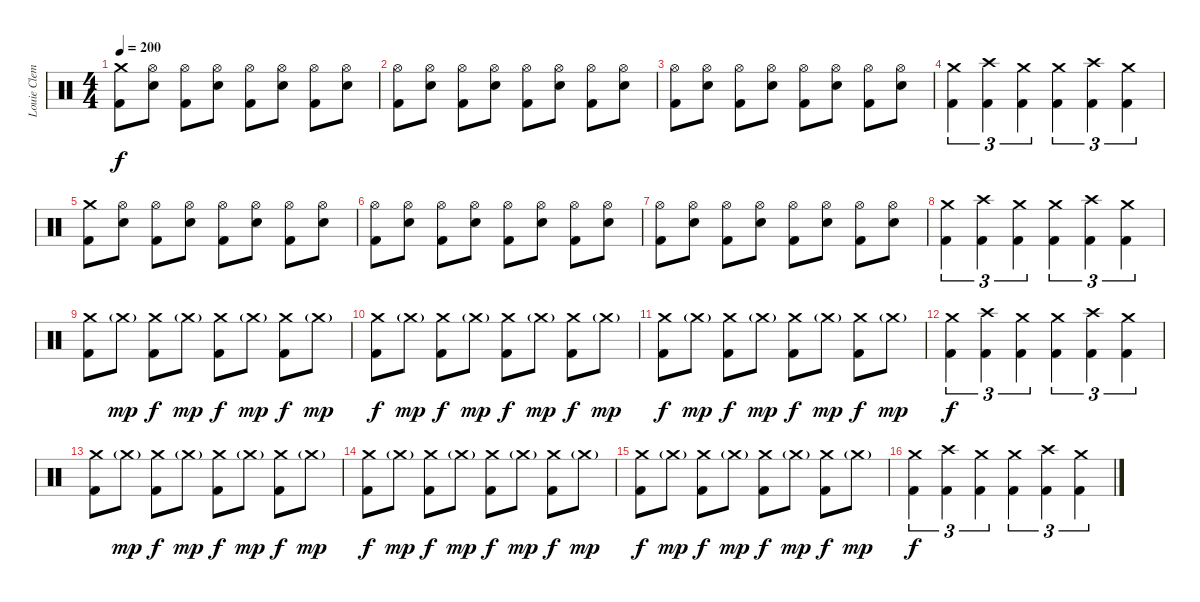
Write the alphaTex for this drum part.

\track ("Louie Clemente" "Louie Clem") {instrument percussion}
\staff {score}
\articulation defaults
\ts (4 4)
\tempo 200
\clef neutral
\ks c
("Crash medium (hit)" "Kick (hit) 2").8{dy f} ("Hi-Hat (open)" "Snare (hit) 2").8 ("Hi-Hat (open)" "Kick (hit) 2").8 ("Hi-Hat (open)" "Snare (hit) 2").8 ("Hi-Hat (open)" "Kick (hit) 2").8 ("Hi-Hat (open)" "Snare (hit) 2").8 ("Hi-Hat (open)" "Kick (hit) 2").8 ("Hi-Hat (open)" "Snare (hit) 2").8 |
("Hi-Hat (open)" "Kick (hit) 2").8 ("Hi-Hat (open)" "Snare (hit) 2").8 ("Hi-Hat (open)" "Kick (hit) 2").8 ("Hi-Hat (open)" "Snare (hit) 2").8 ("Hi-Hat (open)" "Kick (hit) 2").8 ("Hi-Hat (open)" "Snare (hit) 2").8 ("Hi-Hat (open)" "Kick (hit) 2").8 ("Hi-Hat (open)" "Snare (hit) 2").8 |
("Hi-Hat (open)" "Kick (hit) 2").8 ("Hi-Hat (open)" "Snare (hit) 2").8 ("Hi-Hat (open)" "Kick (hit) 2").8 ("Hi-Hat (open)" "Snare (hit) 2").8 ("Hi-Hat (open)" "Kick (hit) 2").8 ("Hi-Hat (open)" "Snare (hit) 2").8 ("Hi-Hat (open)" "Kick (hit) 2").8 ("Hi-Hat (open)" "Snare (hit) 2").8 |
("Crash medium (hit)" "Kick (hit) 2").4{tu (3 2)} ("Crash high (hit)" "Kick (hit) 2").4{tu (3 2)} ("Crash medium (hit)" "Kick (hit) 2").4{tu (3 2)} ("Crash medium (hit)" "Kick (hit) 2").4{tu (3 2)} ("Crash high (hit)" "Kick (hit) 2").4{tu (3 2)} ("Crash medium (hit)" "Kick (hit) 2").4{tu (3 2)} |
("Crash medium (hit)" "Kick (hit) 2").8 ("Hi-Hat (open)" "Snare (hit) 2").8 ("Hi-Hat (open)" "Kick (hit) 2").8 ("Hi-Hat (open)" "Snare (hit) 2").8 ("Hi-Hat (open)" "Kick (hit) 2").8 ("Hi-Hat (open)" "Snare (hit) 2").8 ("Hi-Hat (open)" "Kick (hit) 2").8 ("Hi-Hat (open)" "Snare (hit) 2").8 |
("Hi-Hat (open)" "Kick (hit) 2").8 ("Hi-Hat (open)" "Snare (hit) 2").8 ("Hi-Hat (open)" "Kick (hit) 2").8 ("Hi-Hat (open)" "Snare (hit) 2").8 ("Hi-Hat (open)" "Kick (hit) 2").8 ("Hi-Hat (open)" "Snare (hit) 2").8 ("Hi-Hat (open)" "Kick (hit) 2").8 ("Hi-Hat (open)" "Snare (hit) 2").8 |
("Hi-Hat (open)" "Kick (hit) 2").8 ("Hi-Hat (open)" "Snare (hit) 2").8 ("Hi-Hat (open)" "Kick (hit) 2").8 ("Hi-Hat (open)" "Snare (hit) 2").8 ("Hi-Hat (open)" "Kick (hit) 2").8 ("Hi-Hat (open)" "Snare (hit) 2").8 ("Hi-Hat (open)" "Kick (hit) 2").8 ("Hi-Hat (open)" "Snare (hit) 2").8 |
("Crash medium (hit)" "Kick (hit) 2").4{tu (3 2)} ("Crash high (hit)" "Kick (hit) 2").4{tu (3 2)} ("Crash medium (hit)" "Kick (hit) 2").4{tu (3 2)} ("Crash medium (hit)" "Kick (hit) 2").4{tu (3 2)} ("Crash high (hit)" "Kick (hit) 2").4{tu (3 2)} ("Crash medium (hit)" "Kick (hit) 2").4{tu (3 2)} |
("Crash medium (hit)" "Kick (hit) 2").8 "Crash medium (hit)"{g}.8{dy mp} ("Crash medium (hit)" "Kick (hit) 2").8{dy f} "Crash medium (hit)"{g}.8{dy mp} ("Crash medium (hit)" "Kick (hit) 2").8{dy f} "Crash medium (hit)"{g}.8{dy mp} ("Crash medium (hit)" "Kick (hit) 2").8{dy f} "Crash medium (hit)"{g}.8{dy mp} |
("Crash medium (hit)" "Kick (hit) 2").8{dy f} "Crash medium (hit)"{g}.8{dy mp} ("Crash medium (hit)" "Kick (hit) 2").8{dy f} "Crash medium (hit)"{g}.8{dy mp} ("Crash medium (hit)" "Kick (hit) 2").8{dy f} "Crash medium (hit)"{g}.8{dy mp} ("Crash medium (hit)" "Kick (hit) 2").8{dy f} "Crash medium (hit)"{g}.8{dy mp} |
("Crash medium (hit)" "Kick (hit) 2").8{dy f} "Crash medium (hit)"{g}.8{dy mp} ("Crash medium (hit)" "Kick (hit) 2").8{dy f} "Crash medium (hit)"{g}.8{dy mp} ("Crash medium (hit)" "Kick (hit) 2").8{dy f} "Crash medium (hit)"{g}.8{dy mp} ("Crash medium (hit)" "Kick (hit) 2").8{dy f} "Crash medium (hit)"{g}.8{dy mp} |
("Crash medium (hit)" "Kick (hit) 2").4{tu (3 2) dy f} ("Crash high (hit)" "Kick (hit) 2").4{tu (3 2)} ("Crash medium (hit)" "Kick (hit) 2").4{tu (3 2)} ("Crash medium (hit)" "Kick (hit) 2").4{tu (3 2)} ("Crash high (hit)" "Kick (hit) 2").4{tu (3 2)} ("Crash medium (hit)" "Kick (hit) 2").4{tu (3 2)} |
("Crash medium (hit)" "Kick (hit) 2").8 "Crash medium (hit)"{g}.8{dy mp} ("Crash medium (hit)" "Kick (hit) 2").8{dy f} "Crash medium (hit)"{g}.8{dy mp} ("Crash medium (hit)" "Kick (hit) 2").8{dy f} "Crash medium (hit)"{g}.8{dy mp} ("Crash medium (hit)" "Kick (hit) 2").8{dy f} "Crash medium (hit)"{g}.8{dy mp} |
("Crash medium (hit)" "Kick (hit) 2").8{dy f} "Crash medium (hit)"{g}.8{dy mp} ("Crash medium (hit)" "Kick (hit) 2").8{dy f} "Crash medium (hit)"{g}.8{dy mp} ("Crash medium (hit)" "Kick (hit) 2").8{dy f} "Crash medium (hit)"{g}.8{dy mp} ("Crash medium (hit)" "Kick (hit) 2").8{dy f} "Crash medium (hit)"{g}.8{dy mp} |
("Crash medium (hit)" "Kick (hit) 2").8{dy f} "Crash medium (hit)"{g}.8{dy mp} ("Crash medium (hit)" "Kick (hit) 2").8{dy f} "Crash medium (hit)"{g}.8{dy mp} ("Crash medium (hit)" "Kick (hit) 2").8{dy f} "Crash medium (hit)"{g}.8{dy mp} ("Crash medium (hit)" "Kick (hit) 2").8{dy f} "Crash medium (hit)"{g}.8{dy mp} |
("Crash medium (hit)" "Kick (hit) 2").4{tu (3 2) dy f} ("Crash high (hit)" "Kick (hit) 2").4{tu (3 2)} ("Crash medium (hit)" "Kick (hit) 2").4{tu (3 2)} ("Crash medium (hit)" "Kick (hit) 2").4{tu (3 2)} ("Crash high (hit)" "Kick (hit) 2").4{tu (3 2)} ("Crash medium (hit)" "Kick (hit) 2").4{tu (3 2)}
